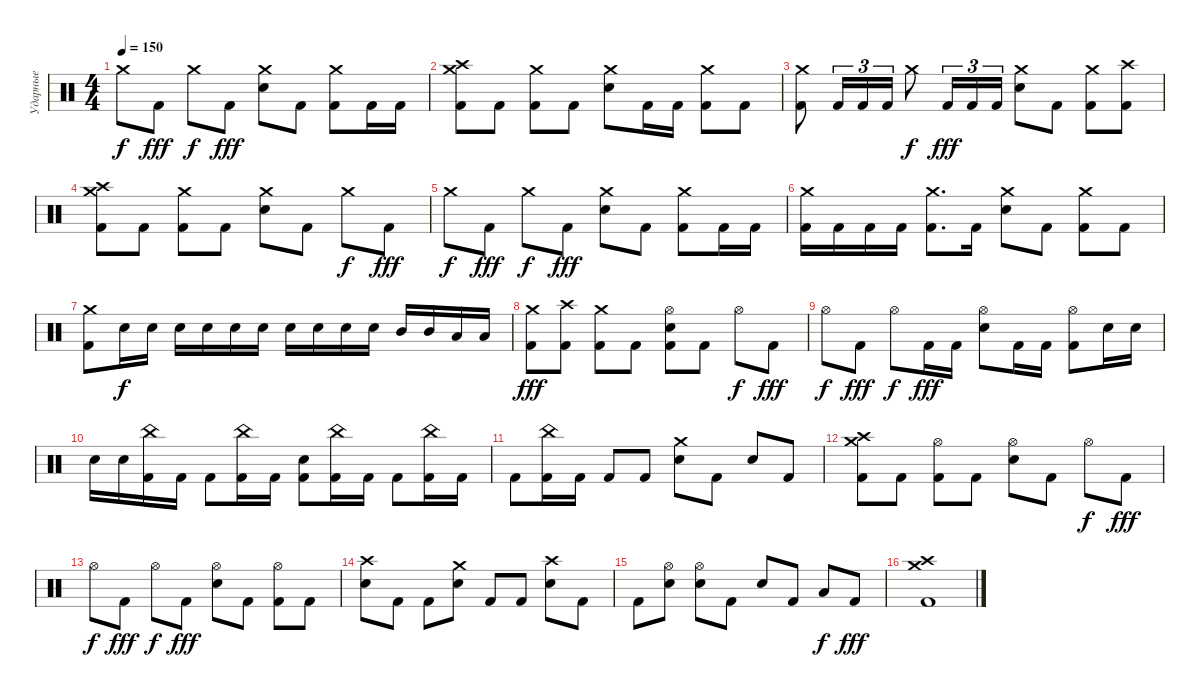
\track ("Ударные" "Ударные") {instrument percussion}
\staff {score}
\articulation defaults
\ts (4 4)
\tempo 150
\clef neutral
\ks c "Crash medium (hit)".8{dy f} "Kick (hit) 2".8{dy fff} "Crash medium (hit)".8{dy f} "Kick (hit) 2".8{dy fff}
("Crash medium (hit)" "Electric Snare (hit)").8 "Kick (hit) 2".8 ("Crash medium (hit)" "Kick (hit) 2").8 "Kick (hit) 2".16 "Kick (hit) 2".16 |
("Crash high (hit)" "Crash medium (hit)" "Kick (hit) 2").8 "Kick (hit) 2".8 ("Crash medium (hit)" "Kick (hit) 2").8 "Kick (hit) 2".8 ("Crash medium (hit)" "Electric Snare (hit)").8 "Kick (hit) 2".16 "Kick (hit) 2".16 ("Crash medium (hit)" "Kick (hit) 2").8 "Kick (hit) 2".8 |
("Crash medium (hit)" "Kick (hit) 2").8 "Kick (hit) 2".16{tu (3 2)} "Kick (hit) 2".16{tu (3 2)} "Kick (hit) 2".16{tu (3 2)} "Crash medium (hit)".8{dy f} "Kick (hit) 2".16{tu (3 2) dy fff} "Kick (hit) 2".16{tu (3 2)} "Kick (hit) 2".16{tu (3 2)} ("Crash medium (hit)" "Electric Snare (hit)").8 "Kick (hit) 2".8 ("Crash medium (hit)" "Kick (hit) 2").8 ("Crash high (hit)" "Kick (hit) 2").8 |
("Crash high (hit)" "Crash medium (hit)" "Kick (hit) 2").8 "Kick (hit) 2".8 ("Crash medium (hit)" "Kick (hit) 2").8 "Kick (hit) 2".8 ("Crash medium (hit)" "Electric Snare (hit)").8 "Kick (hit) 2".8 "Crash medium (hit)".8{dy f} "Kick (hit) 2".8{dy fff} |
"Crash medium (hit)".8{dy f} "Kick (hit) 2".8{dy fff} "Crash medium (hit)".8{dy f} "Kick (hit) 2".8{dy fff} ("Crash medium (hit)" "Electric Snare (hit)").8 "Kick (hit) 2".8 ("Crash medium (hit)" "Kick (hit) 2").8 "Kick (hit) 2".16 "Kick (hit) 2".16 |
("Crash medium (hit)" "Kick (hit) 2").16 "Kick (hit) 2".16 "Kick (hit) 2".16 "Kick (hit) 2".16 ("Crash medium (hit)" "Kick (hit) 2").8{d} "Kick (hit) 2".16 ("Crash medium (hit)" "Electric Snare (hit)").8 "Kick (hit) 2".8 ("Crash medium (hit)" "Kick (hit) 2").8 "Kick (hit) 2".8 |
("Crash medium (hit)" "Kick (hit) 2").8 "Electric Snare (hit)".16{dy f} "Electric Snare (hit)".16 "Electric Snare (hit)".16 "Electric Snare (hit)".16 "Electric Snare (hit)".16 "Electric Snare (hit)".16 "Electric Snare (hit)".16 "Electric Snare (hit)".16 "Electric Snare (hit)".16 "Electric Snare (hit)".16 "Mid Tom (hit)".16 "Mid Tom (hit)".16 "Low Floor Tom (hit)".16 "Low Floor Tom (hit)".16 |
("Crash medium (hit)" "Kick (hit) 2").8{dy fff} ("Crash high (hit)" "Kick (hit) 2").8 ("Crash medium (hit)" "Kick (hit) 2").8 "Kick (hit) 2".8 ("Hi-Hat (open)" "Electric Snare (hit)" "Kick (hit) 2").8 "Kick (hit) 2".8 "Hi-Hat (open)".8{dy f} "Kick (hit) 2".8{dy fff} |
"Hi-Hat (open)".8{dy f} "Kick (hit) 2".8{dy fff} "Hi-Hat (open)".8{dy f} "Kick (hit) 2".16{dy fff} "Kick (hit) 2".16 ("Hi-Hat (open)" "Electric Snare (hit)").8 "Kick (hit) 2".16 "Kick (hit) 2".16 ("Hi-Hat (open)" "Kick (hit) 2").8 "Electric Snare (hit)".16 "Electric Snare (hit)".16 |
"Electric Snare (hit)".16 "Electric Snare (hit)".16 ("China (hit)" "Kick (hit) 2").16 "Kick (hit) 2".16 "Kick (hit) 2".8 ("China (hit)" "Kick (hit) 2").16 "Kick (hit) 2".16 ("Electric Snare (hit)" "Kick (hit) 2").8 ("China (hit)" "Kick (hit) 2").16 "Kick (hit) 2".16 "Kick (hit) 2".8 ("China (hit)" "Kick (hit) 2").16 "Kick (hit) 2".16 |
"Kick (hit) 2".8 ("China (hit)" "Kick (hit) 2").16 "Kick (hit) 2".16 "Kick (hit) 2".8 "Kick (hit) 2".8 ("Crash medium (hit)" "Electric Snare (hit)").8 "Kick (hit) 2".8 "Electric Snare (hit)".8 "Kick (hit) 2".8 |
("Crash high (hit)" "Crash medium (hit)" "Kick (hit) 2").8 "Kick (hit) 2".8 ("Hi-Hat (open)" "Kick (hit) 2").8 "Kick (hit) 2".8 ("Hi-Hat (open)" "Electric Snare (hit)").8 "Kick (hit) 2".8 "Hi-Hat (open)".8{dy f} "Kick (hit) 2".8{dy fff} |
"Hi-Hat (open)".8{dy f} "Kick (hit) 2".8{dy fff} "Hi-Hat (open)".8{dy f} "Kick (hit) 2".8{dy fff} ("Hi-Hat (open)" "Electric Snare (hit)").8 "Kick (hit) 2".8 ("Hi-Hat (open)" "Kick (hit) 2").8 "Kick (hit) 2".8 |
("Crash high (hit)" "Electric Snare (hit)").8 "Kick (hit) 2".8 "Kick (hit) 2".8 ("Crash medium (hit)" "Electric Snare (hit)").8 "Kick (hit) 2".8 "Kick (hit) 2".8 ("Crash high (hit)" "Electric Snare (hit)").8 "Kick (hit) 2".8 |
"Kick (hit) 2".8 ("Hi-Hat (open)" "Electric Snare (hit)").8 ("Hi-Hat (open)" "Electric Snare (hit)").8 "Kick (hit) 2".8 "Electric Snare (hit)".8 "Kick (hit) 2".8 "Low Floor Tom (hit)".8{dy f} "Kick (hit) 2".8{dy fff} |
("Crash high (hit)" "Crash medium (hit)" "Kick (hit) 2").1
